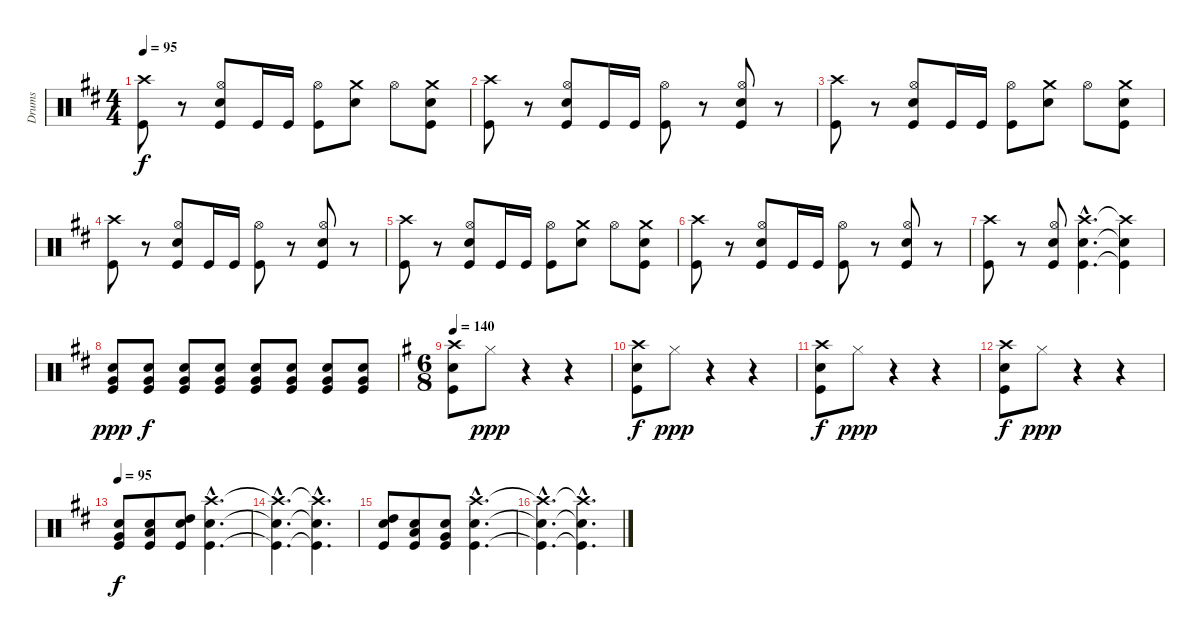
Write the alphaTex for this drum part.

\track ("Drums" "Drums") {instrument percussion}
\staff {score}
\articulation defaults
\ts (4 4)
\tempo 95
\clef neutral
\ks bminor
("Crash high (hit)" "Kick (hit)").8{dy f} r.8 ("Hi-Hat (open)" "Snare (hit) 2" "Kick (hit)").8 "Kick (hit)".16 "Kick (hit)".16 ("Hi-Hat (open)" "Kick (hit)").8 ("Crash medium (hit)" "Snare (hit) 2").8 "Hi-Hat (open)".8 ("Crash medium (hit)" "Snare (hit) 2" "Kick (hit)").8 |
("Crash high (hit)" "Kick (hit)").8 r.8 ("Hi-Hat (open)" "Snare (hit) 2" "Kick (hit)").8 "Kick (hit)".16 "Kick (hit)".16 ("Hi-Hat (open)" "Kick (hit)").8 r.8 ("Hi-Hat (open)" "Snare (hit) 2" "Kick (hit)").8 r.8 |
("Crash high (hit)" "Kick (hit)").8 r.8 ("Hi-Hat (open)" "Snare (hit) 2" "Kick (hit)").8 "Kick (hit)".16 "Kick (hit)".16 ("Hi-Hat (open)" "Kick (hit)").8 ("Crash medium (hit)" "Snare (hit) 2").8 "Hi-Hat (open)".8 ("Crash medium (hit)" "Snare (hit) 2" "Kick (hit)").8 |
("Crash high (hit)" "Kick (hit)").8 r.8 ("Hi-Hat (open)" "Snare (hit) 2" "Kick (hit)").8 "Kick (hit)".16 "Kick (hit)".16 ("Hi-Hat (open)" "Kick (hit)").8 r.8 ("Hi-Hat (open)" "Snare (hit) 2" "Kick (hit)").8 r.8 |
("Crash high (hit)" "Kick (hit)").8 r.8 ("Hi-Hat (open)" "Snare (hit) 2" "Kick (hit)").8 "Kick (hit)".16 "Kick (hit)".16 ("Hi-Hat (open)" "Kick (hit)").8 ("Crash medium (hit)" "Snare (hit) 2").8 "Hi-Hat (open)".8 ("Crash medium (hit)" "Snare (hit) 2" "Kick (hit)").8 |
("Crash high (hit)" "Kick (hit)").8 r.8 ("Hi-Hat (open)" "Snare (hit) 2" "Kick (hit)").8 "Kick (hit)".16 "Kick (hit)".16 ("Hi-Hat (open)" "Kick (hit)").8 r.8 ("Hi-Hat (open)" "Snare (hit) 2" "Kick (hit)").8 r.8 |
("Crash high (hit)" "Kick (hit)").8 r.8 ("Hi-Hat (open)" "Snare (hit) 2" "Kick (hit)").8 ("Crash high (hit)"{hac} "Snare (hit) 2"{hac} "Kick (hit)"{hac}).4{d} ("Crash high (hit)"{t} "Snare (hit) 2"{t} "Kick (hit)"{t}).4 |
("Very Low Tom (hit)" "Snare (hit) 2" "Kick (hit)").8{dy ppp volume 8} ("Very Low Tom (hit)" "Snare (hit) 2" "Kick (hit)").8{dy f volume 16} ("Very Low Tom (hit)" "Snare (hit) 2" "Kick (hit)").8 ("Very Low Tom (hit)" "Snare (hit) 2" "Kick (hit)").8 ("Very Low Tom (hit)" "Snare (hit) 2" "Kick (hit)").8 ("Very Low Tom (hit)" "Snare (hit) 2" "Kick (hit)").8 ("Very Low Tom (hit)" "Snare (hit) 2" "Kick (hit)").8 ("Very Low Tom (hit)" "Snare (hit) 2" "Kick (hit)").8 |
\ts (6 8)
\tempo 140
\ks eminor
("Crash high (hit)" "Snare (hit) 2" "Kick (hit)").8 "Hi-Hat (closed)".8{dy ppp} r.4 r.4 |
("Crash high (hit)" "Snare (hit) 2" "Kick (hit)").8{dy f} "Hi-Hat (closed)".8{dy ppp} r.4 r.4 |
("Crash high (hit)" "Snare (hit) 2" "Kick (hit)").8{dy f} "Hi-Hat (closed)".8{dy ppp} r.4 r.4 |
("Crash high (hit)" "Snare (hit) 2" "Kick (hit)").8{dy f} "Hi-Hat (closed)".8{dy ppp} r.4 r.4 |
\tempo 95
\ks bminor
("Very Low Tom (hit)" "Snare (hit) 2" "Kick (hit)").8{dy f} ("Low Tom (hit)" "Snare (hit) 2" "Kick (hit)").8 ("High Tom (hit)" "Snare (hit) 2" "Kick (hit)").8 ("Crash high (hit)"{hac} "Snare (hit) 2"{hac} "Kick (hit)"{hac}).4{d} |
("Crash high (hit)"{hac t} "Snare (hit) 2"{hac t} "Kick (hit)"{hac t}).4{d} ("Crash high (hit)"{hac t} "Snare (hit) 2"{hac t} "Kick (hit)"{hac t}).4{d} |
("High Tom (hit)" "Snare (hit) 2" "Kick (hit)").8 ("Low Tom (hit)" "Snare (hit) 2" "Kick (hit)").8 ("Very Low Tom (hit)" "Snare (hit) 2" "Kick (hit)").8 ("Crash high (hit)"{hac} "Snare (hit) 2"{hac} "Kick (hit)"{hac}).4{d} |
("Crash high (hit)"{hac t} "Snare (hit) 2"{hac t} "Kick (hit)"{hac t}).4{d} ("Crash high (hit)"{hac t} "Snare (hit) 2"{hac t} "Kick (hit)"{hac t}).4{d}
